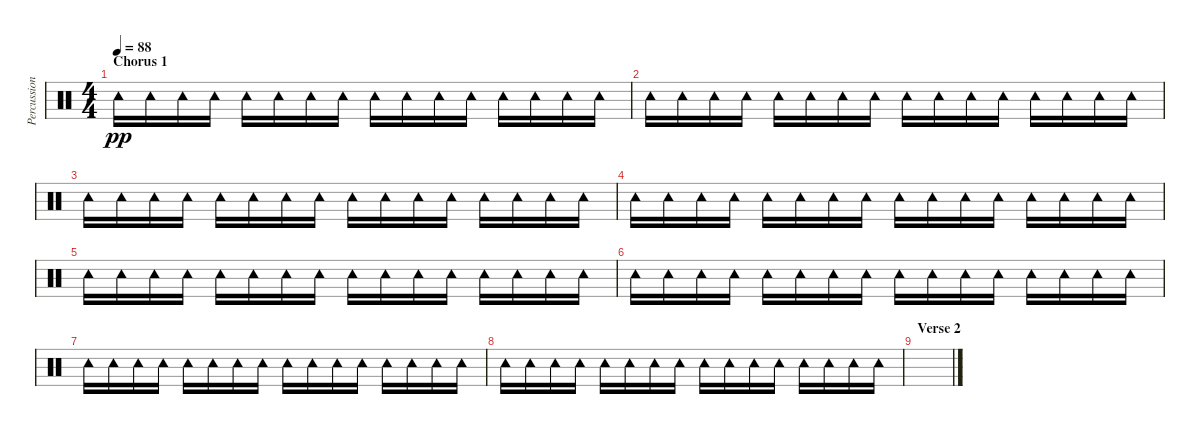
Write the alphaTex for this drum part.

\track ("Percussion" "Percussion") {instrument percussion}
\staff {score}
\articulation defaults
\ts (4 4)
\section ("" "Chorus 1")
\tempo 88
\clef neutral
\ks c "Tambourine (hit)".16{dy pp} "Tambourine (hit)".16 "Tambourine (hit)".16 "Tambourine (hit)".16 "Tambourine (hit)".16 "Tambourine (hit)".16 "Tambourine (hit)".16 "Tambourine (hit)".16 "Tambourine (hit)".16 "Tambourine (hit)".16 "Tambourine (hit)".16 "Tambourine (hit)".16 "Tambourine (hit)".16 "Tambourine (hit)".16 "Tambourine (hit)".16 "Tambourine (hit)".16
|
"Tambourine (hit)".16 "Tambourine (hit)".16 "Tambourine (hit)".16 "Tambourine (hit)".16 "Tambourine (hit)".16 "Tambourine (hit)".16 "Tambourine (hit)".16 "Tambourine (hit)".16 "Tambourine (hit)".16 "Tambourine (hit)".16 "Tambourine (hit)".16 "Tambourine (hit)".16 "Tambourine (hit)".16 "Tambourine (hit)".16 "Tambourine (hit)".16 "Tambourine (hit)".16 |
"Tambourine (hit)".16 "Tambourine (hit)".16 "Tambourine (hit)".16 "Tambourine (hit)".16 "Tambourine (hit)".16 "Tambourine (hit)".16 "Tambourine (hit)".16 "Tambourine (hit)".16 "Tambourine (hit)".16 "Tambourine (hit)".16 "Tambourine (hit)".16 "Tambourine (hit)".16 "Tambourine (hit)".16 "Tambourine (hit)".16 "Tambourine (hit)".16 "Tambourine (hit)".16 |
"Tambourine (hit)".16 "Tambourine (hit)".16 "Tambourine (hit)".16 "Tambourine (hit)".16 "Tambourine (hit)".16 "Tambourine (hit)".16 "Tambourine (hit)".16 "Tambourine (hit)".16 "Tambourine (hit)".16 "Tambourine (hit)".16 "Tambourine (hit)".16 "Tambourine (hit)".16 "Tambourine (hit)".16 "Tambourine (hit)".16 "Tambourine (hit)".16 "Tambourine (hit)".16 |
"Tambourine (hit)".16 "Tambourine (hit)".16 "Tambourine (hit)".16 "Tambourine (hit)".16 "Tambourine (hit)".16 "Tambourine (hit)".16 "Tambourine (hit)".16 "Tambourine (hit)".16 "Tambourine (hit)".16 "Tambourine (hit)".16 "Tambourine (hit)".16 "Tambourine (hit)".16 "Tambourine (hit)".16 "Tambourine (hit)".16 "Tambourine (hit)".16 "Tambourine (hit)".16 |
"Tambourine (hit)".16 "Tambourine (hit)".16 "Tambourine (hit)".16 "Tambourine (hit)".16 "Tambourine (hit)".16 "Tambourine (hit)".16 "Tambourine (hit)".16 "Tambourine (hit)".16 "Tambourine (hit)".16 "Tambourine (hit)".16 "Tambourine (hit)".16 "Tambourine (hit)".16 "Tambourine (hit)".16 "Tambourine (hit)".16 "Tambourine (hit)".16 "Tambourine (hit)".16 |
"Tambourine (hit)".16 "Tambourine (hit)".16 "Tambourine (hit)".16 "Tambourine (hit)".16 "Tambourine (hit)".16 "Tambourine (hit)".16 "Tambourine (hit)".16 "Tambourine (hit)".16 "Tambourine (hit)".16 "Tambourine (hit)".16 "Tambourine (hit)".16 "Tambourine (hit)".16 "Tambourine (hit)".16 "Tambourine (hit)".16 "Tambourine (hit)".16 "Tambourine (hit)".16 |
"Tambourine (hit)".16 "Tambourine (hit)".16 "Tambourine (hit)".16 "Tambourine (hit)".16 "Tambourine (hit)".16 "Tambourine (hit)".16 "Tambourine (hit)".16 "Tambourine (hit)".16 "Tambourine (hit)".16 "Tambourine (hit)".16 "Tambourine (hit)".16 "Tambourine (hit)".16 "Tambourine (hit)".16 "Tambourine (hit)".16 "Tambourine (hit)".16 "Tambourine (hit)".16 |
\section ("" "Verse 2")
